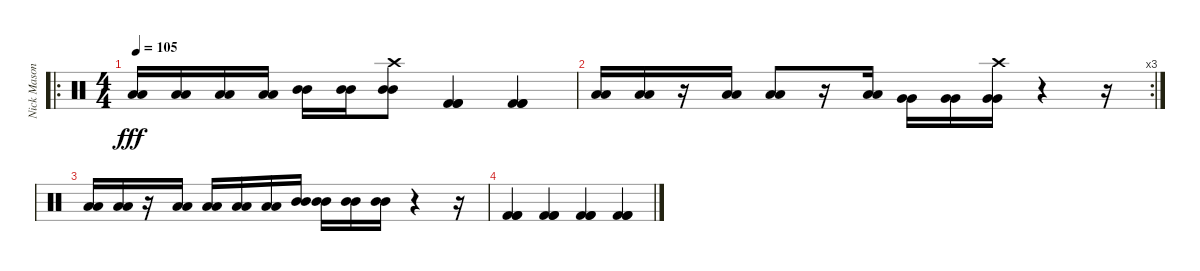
\track ("Nick Mason" "Nick Mason") {instrument percussion}
\staff {score}
\articulation defaults
\ro
\ts (4 4)
\tempo 105
\clef neutral
\ks c
("Low Tom (hit)" "Low Tom (hit)").16{dy fff} ("Low Tom (hit)" "Low Tom (hit)").16 ("Low Tom (hit)" "Low Tom (hit)").16 ("Low Tom (hit)" "Low Tom (hit)").16 ("Mid Tom (hit)" "Mid Tom (hit)").16 ("Mid Tom (hit)" "Mid Tom (hit)").16 ("Mid Tom (hit)" "Crash high (hit)" "Mid Tom (hit)").8 ("Kick (hit) 2" "Kick (hit) 2" "Kick (hit) 2").4 ("Kick (hit) 2" "Kick (hit) 2" "Kick (hit) 2").4 |
\rc 3
("Low Floor Tom (hit)" "Low Floor Tom (hit)").16 ("Low Floor Tom (hit)" "Low Floor Tom (hit)").16 r.16 ("Low Floor Tom (hit)" "Low Floor Tom (hit)").16 ("Low Floor Tom (hit)" "Low Floor Tom (hit)").8 r.16 ("Low Floor Tom (hit)" "Low Floor Tom (hit)").16 ("Very Low Tom (hit)" "Very Low Tom (hit)").16 ("Very Low Tom (hit)" "Very Low Tom (hit)").16 ("Very Low Tom (hit)" "Very Low Tom (hit)" "Crash high (hit)").16 r.4 r.16 |
("Low Tom (hit)" "Low Tom (hit)").16 ("Low Tom (hit)" "Low Tom (hit)").16 r.16 ("Low Tom (hit)" "Low Tom (hit)").16 ("Low Tom (hit)" "Low Tom (hit)").16 ("Low Tom (hit)" "Low Tom (hit)").16 ("Low Tom (hit)" "Low Tom (hit)").16 ("Mid Tom (hit)" "Mid Tom (hit)").16 ("Mid Tom (hit)" "Mid Tom (hit)").16 ("Mid Tom (hit)" "Mid Tom (hit)").16 ("Mid Tom (hit)" "Mid Tom (hit)").16 r.4 r.16 |
("Kick (hit) 2" "Kick (hit) 2" "Kick (hit) 2").4 ("Kick (hit) 2" "Kick (hit) 2" "Kick (hit) 2").4 ("Kick (hit) 2" "Kick (hit) 2" "Kick (hit) 2").4 ("Kick (hit) 2" "Kick (hit) 2" "Kick (hit) 2").4
